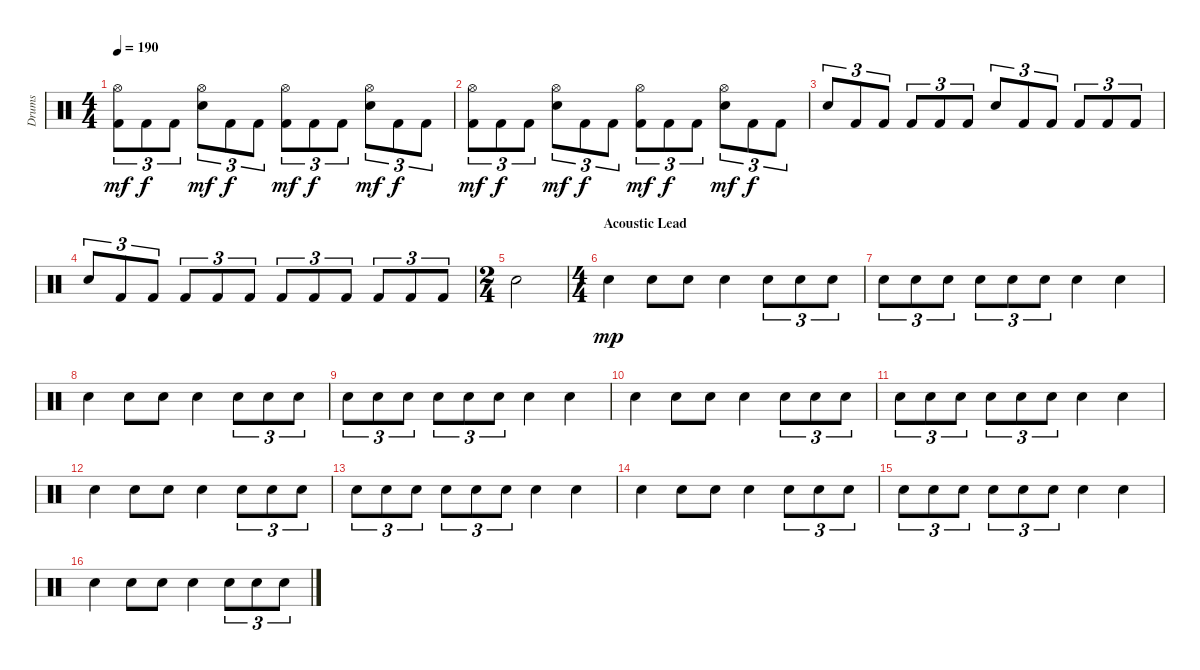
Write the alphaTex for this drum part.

\track ("Drums" "Drums") {instrument percussion}
\staff {score}
\articulation defaults
\ts (4 4)
\tempo 190
\clef neutral
\ks c
("Hi-Hat (open)" "Kick (hit) 2").8{tu (3 2) dy mf} "Kick (hit) 2".8{tu (3 2) dy f} "Kick (hit) 2".8{tu (3 2)} ("Hi-Hat (open)" "Snare (hit) 2").8{tu (3 2) dy mf} "Kick (hit) 2".8{tu (3 2) dy f} "Kick (hit) 2".8{tu (3 2)} ("Hi-Hat (open)" "Kick (hit) 2").8{tu (3 2) dy mf} "Kick (hit) 2".8{tu (3 2) dy f} "Kick (hit) 2".8{tu (3 2)} ("Hi-Hat (open)" "Snare (hit) 2").8{tu (3 2) dy mf} "Kick (hit) 2".8{tu (3 2) dy f} "Kick (hit) 2".8{tu (3 2)} |
("Hi-Hat (open)" "Kick (hit) 2").8{tu (3 2) dy mf} "Kick (hit) 2".8{tu (3 2) dy f} "Kick (hit) 2".8{tu (3 2)} ("Hi-Hat (open)" "Snare (hit) 2").8{tu (3 2) dy mf} "Kick (hit) 2".8{tu (3 2) dy f} "Kick (hit) 2".8{tu (3 2)} ("Hi-Hat (open)" "Kick (hit) 2").8{tu (3 2) dy mf} "Kick (hit) 2".8{tu (3 2) dy f} "Kick (hit) 2".8{tu (3 2)} ("Hi-Hat (open)" "Snare (hit) 2").8{tu (3 2) dy mf} "Kick (hit) 2".8{tu (3 2) dy f} "Kick (hit) 2".8{tu (3 2)} |
"Snare (hit) 2".8{tu (3 2)} "Kick (hit) 2".8{tu (3 2)} "Kick (hit) 2".8{tu (3 2)} "Kick (hit) 2".8{tu (3 2)} "Kick (hit) 2".8{tu (3 2)} "Kick (hit) 2".8{tu (3 2)} "Snare (hit) 2".8{tu (3 2)} "Kick (hit) 2".8{tu (3 2)} "Kick (hit) 2".8{tu (3 2)} "Kick (hit) 2".8{tu (3 2)} "Kick (hit) 2".8{tu (3 2)} "Kick (hit) 2".8{tu (3 2)} |
"Snare (hit) 2".8{tu (3 2)} "Kick (hit) 2".8{tu (3 2)} "Kick (hit) 2".8{tu (3 2)} "Kick (hit) 2".8{tu (3 2)} "Kick (hit) 2".8{tu (3 2)} "Kick (hit) 2".8{tu (3 2)} "Kick (hit) 2".8{tu (3 2)} "Kick (hit) 2".8{tu (3 2)} "Kick (hit) 2".8{tu (3 2)} "Kick (hit) 2".8{tu (3 2)} "Kick (hit) 2".8{tu (3 2)} "Kick (hit) 2".8{tu (3 2)} |
\ts (2 4)
"Snare (hit) 2".2 |
\ts (4 4)
\section ("" "Acoustic Lead")
"Snare (hit) 2".4{dy mp} "Snare (hit) 2".8 "Snare (hit) 2".8 "Snare (hit) 2".4 "Snare (hit) 2".8{tu (3 2)} "Snare (hit) 2".8{tu (3 2)} "Snare (hit) 2".8{tu (3 2)} |
"Snare (hit) 2".8{tu (3 2)} "Snare (hit) 2".8{tu (3 2)} "Snare (hit) 2".8{tu (3 2)} "Snare (hit) 2".8{tu (3 2)} "Snare (hit) 2".8{tu (3 2)} "Snare (hit) 2".8{tu (3 2)} "Snare (hit) 2".4 "Snare (hit) 2".4 |
"Snare (hit) 2".4 "Snare (hit) 2".8 "Snare (hit) 2".8 "Snare (hit) 2".4 "Snare (hit) 2".8{tu (3 2)} "Snare (hit) 2".8{tu (3 2)} "Snare (hit) 2".8{tu (3 2)} |
"Snare (hit) 2".8{tu (3 2)} "Snare (hit) 2".8{tu (3 2)} "Snare (hit) 2".8{tu (3 2)} "Snare (hit) 2".8{tu (3 2)} "Snare (hit) 2".8{tu (3 2)} "Snare (hit) 2".8{tu (3 2)} "Snare (hit) 2".4 "Snare (hit) 2".4 |
"Snare (hit) 2".4 "Snare (hit) 2".8 "Snare (hit) 2".8 "Snare (hit) 2".4 "Snare (hit) 2".8{tu (3 2)} "Snare (hit) 2".8{tu (3 2)} "Snare (hit) 2".8{tu (3 2)} |
"Snare (hit) 2".8{tu (3 2)} "Snare (hit) 2".8{tu (3 2)} "Snare (hit) 2".8{tu (3 2)} "Snare (hit) 2".8{tu (3 2)} "Snare (hit) 2".8{tu (3 2)} "Snare (hit) 2".8{tu (3 2)} "Snare (hit) 2".4 "Snare (hit) 2".4 |
"Snare (hit) 2".4 "Snare (hit) 2".8 "Snare (hit) 2".8 "Snare (hit) 2".4 "Snare (hit) 2".8{tu (3 2)} "Snare (hit) 2".8{tu (3 2)} "Snare (hit) 2".8{tu (3 2)} |
"Snare (hit) 2".8{tu (3 2)} "Snare (hit) 2".8{tu (3 2)} "Snare (hit) 2".8{tu (3 2)} "Snare (hit) 2".8{tu (3 2)} "Snare (hit) 2".8{tu (3 2)} "Snare (hit) 2".8{tu (3 2)} "Snare (hit) 2".4 "Snare (hit) 2".4 |
"Snare (hit) 2".4 "Snare (hit) 2".8 "Snare (hit) 2".8 "Snare (hit) 2".4 "Snare (hit) 2".8{tu (3 2)} "Snare (hit) 2".8{tu (3 2)} "Snare (hit) 2".8{tu (3 2)} |
"Snare (hit) 2".8{tu (3 2)} "Snare (hit) 2".8{tu (3 2)} "Snare (hit) 2".8{tu (3 2)} "Snare (hit) 2".8{tu (3 2)} "Snare (hit) 2".8{tu (3 2)} "Snare (hit) 2".8{tu (3 2)} "Snare (hit) 2".4 "Snare (hit) 2".4 |
"Snare (hit) 2".4 "Snare (hit) 2".8 "Snare (hit) 2".8 "Snare (hit) 2".4 "Snare (hit) 2".8{tu (3 2)} "Snare (hit) 2".8{tu (3 2)} "Snare (hit) 2".8{tu (3 2)}
